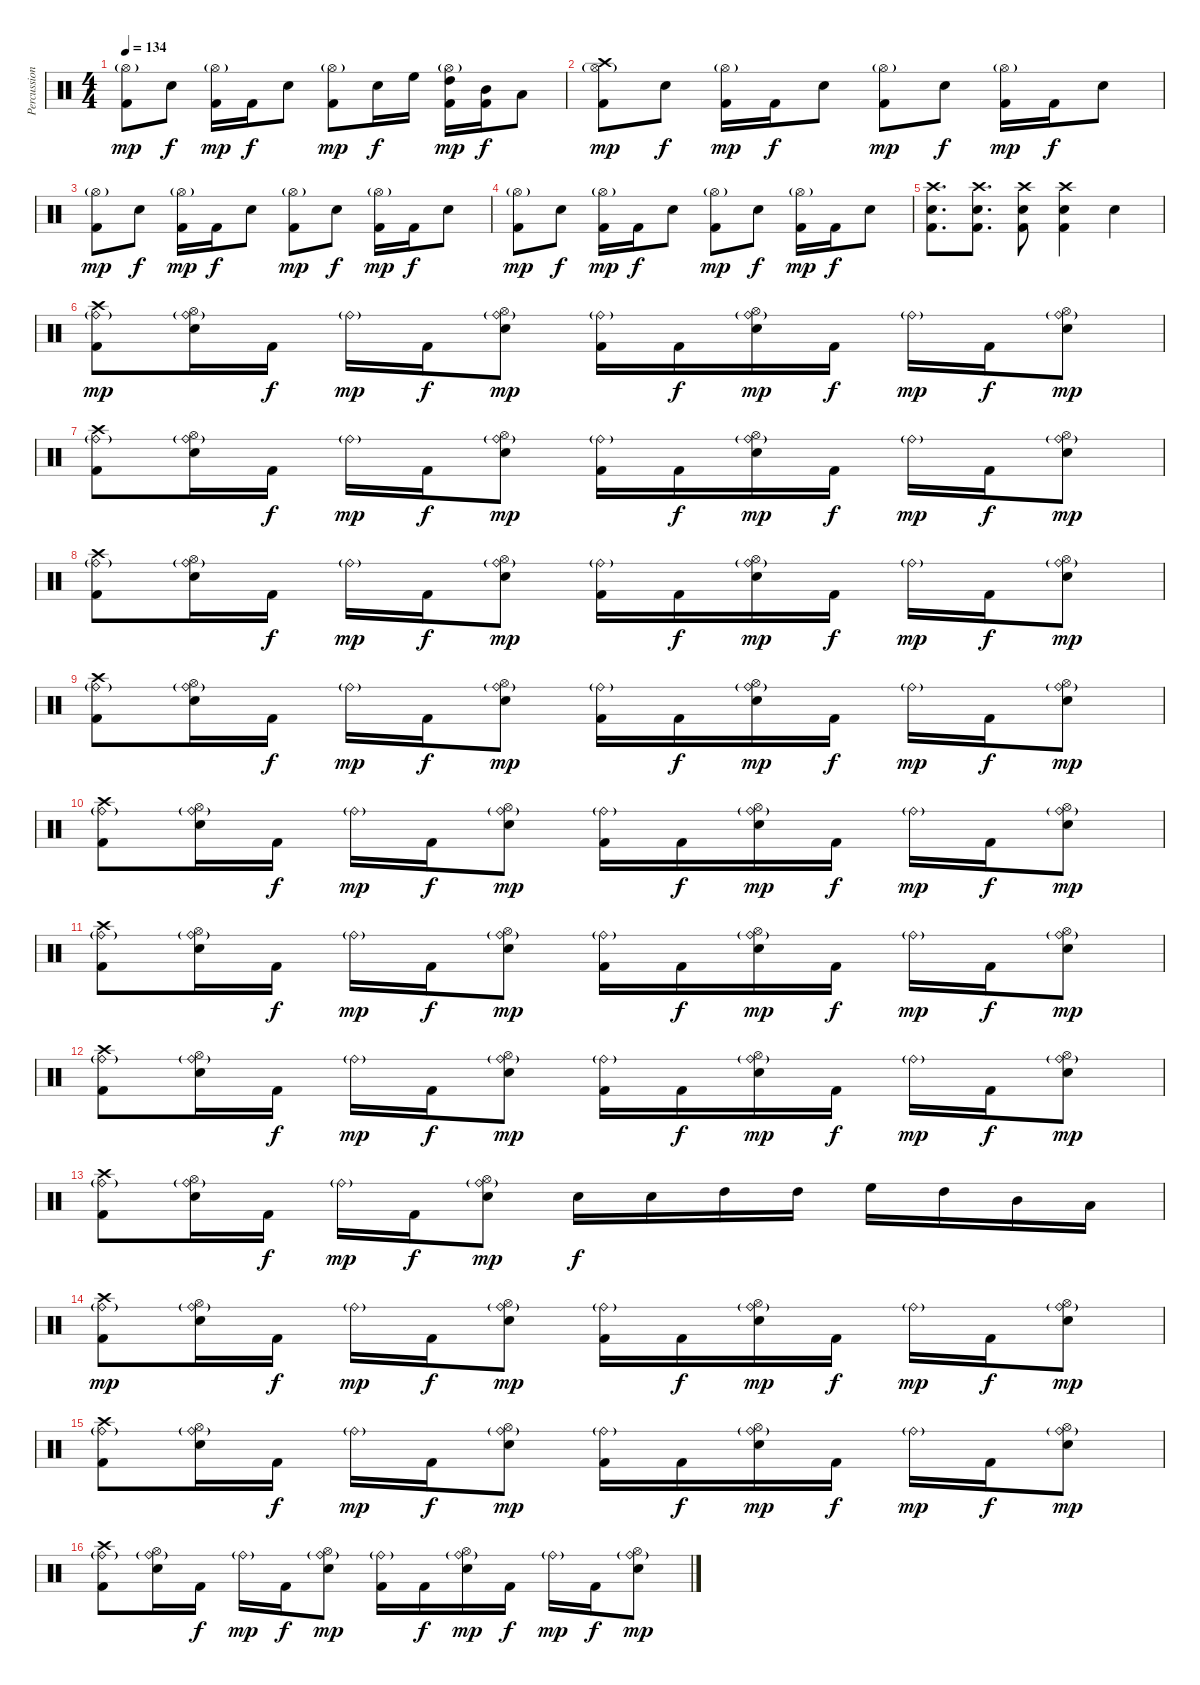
\track ("Percussion" "Percussion") {instrument percussion}
\staff {score}
\articulation defaults
\ts (4 4)
\tempo 134
\clef neutral
\ks aminor
("Hi-Hat (open)"{g} "Kick (hit) 2").8{dy mp} "Electric Snare (hit)".8{dy f} ("Hi-Hat (open)"{g} "Kick (hit) 2").16{dy mp} "Kick (hit) 2".16{dy f} "Electric Snare (hit)".8 ("Hi-Hat (open)"{g} "Kick (hit) 2").8{dy mp} "Electric Snare (hit)".16{dy f} "High Floor Tom (hit)".16 ("Hi-Hat (open)"{g} "High Tom (hit)" "Kick (hit) 2").16{dy mp} ("Mid Tom (hit)" "Kick (hit) 2").16{dy f} "Low Tom (hit)".8 |
("Crash high (hit)" "Hi-Hat (open)"{g} "Kick (hit) 2").8{dy mp} "Electric Snare (hit)".8{dy f} ("Hi-Hat (open)"{g} "Kick (hit) 2").16{dy mp} "Kick (hit) 2".16{dy f} "Electric Snare (hit)".8 ("Hi-Hat (open)"{g} "Kick (hit) 2").8{dy mp} "Electric Snare (hit)".8{dy f} ("Hi-Hat (open)"{g} "Kick (hit) 2").16{dy mp} "Kick (hit) 2".16{dy f} "Electric Snare (hit)".8 |
("Hi-Hat (open)"{g} "Kick (hit) 2").8{dy mp} "Electric Snare (hit)".8{dy f} ("Hi-Hat (open)"{g} "Kick (hit) 2").16{dy mp} "Kick (hit) 2".16{dy f} "Electric Snare (hit)".8 ("Hi-Hat (open)"{g} "Kick (hit) 2").8{dy mp} "Electric Snare (hit)".8{dy f} ("Hi-Hat (open)"{g} "Kick (hit) 2").16{dy mp} "Kick (hit) 2".16{dy f} "Electric Snare (hit)".8 |
("Hi-Hat (open)"{g} "Kick (hit) 2").8{dy mp} "Electric Snare (hit)".8{dy f} ("Hi-Hat (open)"{g} "Kick (hit) 2").16{dy mp} "Kick (hit) 2".16{dy f} "Electric Snare (hit)".8 ("Hi-Hat (open)"{g} "Kick (hit) 2").8{dy mp} "Electric Snare (hit)".8{dy f} ("Hi-Hat (open)"{g} "Kick (hit) 2").16{dy mp} "Kick (hit) 2".16{dy f} "Electric Snare (hit)".8 |
("Crash high (hit)" "Electric Snare (hit)" "Kick (hit) 2").8{d} ("Crash high (hit)" "Electric Snare (hit)" "Kick (hit) 2").8{d} ("Crash high (hit)" "Electric Snare (hit)" "Kick (hit) 2").8 ("Crash high (hit)" "Electric Snare (hit)" "Kick (hit) 2").4 "Electric Snare (hit)".4 |
("Crash high (hit)" "Ride (bell)"{g} "Kick (hit) 2").8{dy mp} ("Hi-Hat (open)" "Ride (bell)"{g} "Electric Snare (hit)").16 "Kick (hit) 2".16{dy f} "Ride (bell)"{g}.16{dy mp} "Kick (hit) 2".16{dy f} ("Hi-Hat (open)" "Ride (bell)"{g} "Electric Snare (hit)").8{dy mp} ("Ride (bell)"{g} "Kick (hit) 2").16 "Kick (hit) 2".16{dy f} ("Hi-Hat (open)" "Ride (bell)"{g} "Electric Snare (hit)").16{dy mp} "Kick (hit) 2".16{dy f} "Ride (bell)"{g}.16{dy mp} "Kick (hit) 2".16{dy f} ("Hi-Hat (open)" "Ride (bell)"{g} "Electric Snare (hit)").8{dy mp} |
("Crash high (hit)" "Ride (bell)"{g} "Kick (hit) 2").8 ("Hi-Hat (open)" "Ride (bell)"{g} "Electric Snare (hit)").16 "Kick (hit) 2".16{dy f} "Ride (bell)"{g}.16{dy mp} "Kick (hit) 2".16{dy f} ("Hi-Hat (open)" "Ride (bell)"{g} "Electric Snare (hit)").8{dy mp} ("Ride (bell)"{g} "Kick (hit) 2").16 "Kick (hit) 2".16{dy f} ("Hi-Hat (open)" "Ride (bell)"{g} "Electric Snare (hit)").16{dy mp} "Kick (hit) 2".16{dy f} "Ride (bell)"{g}.16{dy mp} "Kick (hit) 2".16{dy f} ("Hi-Hat (open)" "Ride (bell)"{g} "Electric Snare (hit)").8{dy mp} |
("Crash high (hit)" "Ride (bell)"{g} "Kick (hit) 2").8 ("Hi-Hat (open)" "Ride (bell)"{g} "Electric Snare (hit)").16 "Kick (hit) 2".16{dy f} "Ride (bell)"{g}.16{dy mp} "Kick (hit) 2".16{dy f} ("Hi-Hat (open)" "Ride (bell)"{g} "Electric Snare (hit)").8{dy mp} ("Ride (bell)"{g} "Kick (hit) 2").16 "Kick (hit) 2".16{dy f} ("Hi-Hat (open)" "Ride (bell)"{g} "Electric Snare (hit)").16{dy mp} "Kick (hit) 2".16{dy f} "Ride (bell)"{g}.16{dy mp} "Kick (hit) 2".16{dy f} ("Hi-Hat (open)" "Ride (bell)"{g} "Electric Snare (hit)").8{dy mp} |
("Crash high (hit)" "Ride (bell)"{g} "Kick (hit) 2").8 ("Hi-Hat (open)" "Ride (bell)"{g} "Electric Snare (hit)").16 "Kick (hit) 2".16{dy f} "Ride (bell)"{g}.16{dy mp} "Kick (hit) 2".16{dy f} ("Hi-Hat (open)" "Ride (bell)"{g} "Electric Snare (hit)").8{dy mp} ("Ride (bell)"{g} "Kick (hit) 2").16 "Kick (hit) 2".16{dy f} ("Hi-Hat (open)" "Ride (bell)"{g} "Electric Snare (hit)").16{dy mp} "Kick (hit) 2".16{dy f} "Ride (bell)"{g}.16{dy mp} "Kick (hit) 2".16{dy f} ("Hi-Hat (open)" "Ride (bell)"{g} "Electric Snare (hit)").8{dy mp} |
("Crash high (hit)" "Ride (bell)"{g} "Kick (hit) 2").8 ("Hi-Hat (open)" "Ride (bell)"{g} "Electric Snare (hit)").16 "Kick (hit) 2".16{dy f} "Ride (bell)"{g}.16{dy mp} "Kick (hit) 2".16{dy f} ("Hi-Hat (open)" "Ride (bell)"{g} "Electric Snare (hit)").8{dy mp} ("Ride (bell)"{g} "Kick (hit) 2").16 "Kick (hit) 2".16{dy f} ("Hi-Hat (open)" "Ride (bell)"{g} "Electric Snare (hit)").16{dy mp} "Kick (hit) 2".16{dy f} "Ride (bell)"{g}.16{dy mp} "Kick (hit) 2".16{dy f} ("Hi-Hat (open)" "Ride (bell)"{g} "Electric Snare (hit)").8{dy mp} |
("Crash high (hit)" "Ride (bell)"{g} "Kick (hit) 2").8 ("Hi-Hat (open)" "Ride (bell)"{g} "Electric Snare (hit)").16 "Kick (hit) 2".16{dy f} "Ride (bell)"{g}.16{dy mp} "Kick (hit) 2".16{dy f} ("Hi-Hat (open)" "Ride (bell)"{g} "Electric Snare (hit)").8{dy mp} ("Ride (bell)"{g} "Kick (hit) 2").16 "Kick (hit) 2".16{dy f} ("Hi-Hat (open)" "Ride (bell)"{g} "Electric Snare (hit)").16{dy mp} "Kick (hit) 2".16{dy f} "Ride (bell)"{g}.16{dy mp} "Kick (hit) 2".16{dy f} ("Hi-Hat (open)" "Ride (bell)"{g} "Electric Snare (hit)").8{dy mp} |
("Crash high (hit)" "Ride (bell)"{g} "Kick (hit) 2").8 ("Hi-Hat (open)" "Ride (bell)"{g} "Electric Snare (hit)").16 "Kick (hit) 2".16{dy f} "Ride (bell)"{g}.16{dy mp} "Kick (hit) 2".16{dy f} ("Hi-Hat (open)" "Ride (bell)"{g} "Electric Snare (hit)").8{dy mp} ("Ride (bell)"{g} "Kick (hit) 2").16 "Kick (hit) 2".16{dy f} ("Hi-Hat (open)" "Ride (bell)"{g} "Electric Snare (hit)").16{dy mp} "Kick (hit) 2".16{dy f} "Ride (bell)"{g}.16{dy mp} "Kick (hit) 2".16{dy f} ("Hi-Hat (open)" "Ride (bell)"{g} "Electric Snare (hit)").8{dy mp} |
("Crash high (hit)" "Ride (bell)"{g} "Kick (hit) 2").8 ("Hi-Hat (open)" "Ride (bell)"{g} "Electric Snare (hit)").16 "Kick (hit) 2".16{dy f} "Ride (bell)"{g}.16{dy mp} "Kick (hit) 2".16{dy f} ("Hi-Hat (open)" "Ride (bell)"{g} "Electric Snare (hit)").8{dy mp} "Electric Snare (hit)".16{dy f} "Electric Snare (hit)".16 "High Tom (hit)".16 "High Tom (hit)".16 "High Floor Tom (hit)".16 "High Tom (hit)".16 "Mid Tom (hit)".16 "Low Tom (hit)".16 |
("Crash high (hit)" "Ride (bell)"{g} "Kick (hit) 2").8{dy mp} ("Hi-Hat (open)" "Ride (bell)"{g} "Electric Snare (hit)").16 "Kick (hit) 2".16{dy f} "Ride (bell)"{g}.16{dy mp} "Kick (hit) 2".16{dy f} ("Hi-Hat (open)" "Ride (bell)"{g} "Electric Snare (hit)").8{dy mp} ("Ride (bell)"{g} "Kick (hit) 2").16 "Kick (hit) 2".16{dy f} ("Hi-Hat (open)" "Ride (bell)"{g} "Electric Snare (hit)").16{dy mp} "Kick (hit) 2".16{dy f} "Ride (bell)"{g}.16{dy mp} "Kick (hit) 2".16{dy f} ("Hi-Hat (open)" "Ride (bell)"{g} "Electric Snare (hit)").8{dy mp} |
("Crash high (hit)" "Ride (bell)"{g} "Kick (hit) 2").8 ("Hi-Hat (open)" "Ride (bell)"{g} "Electric Snare (hit)").16 "Kick (hit) 2".16{dy f} "Ride (bell)"{g}.16{dy mp} "Kick (hit) 2".16{dy f} ("Hi-Hat (open)" "Ride (bell)"{g} "Electric Snare (hit)").8{dy mp} ("Ride (bell)"{g} "Kick (hit) 2").16 "Kick (hit) 2".16{dy f} ("Hi-Hat (open)" "Ride (bell)"{g} "Electric Snare (hit)").16{dy mp} "Kick (hit) 2".16{dy f} "Ride (bell)"{g}.16{dy mp} "Kick (hit) 2".16{dy f} ("Hi-Hat (open)" "Ride (bell)"{g} "Electric Snare (hit)").8{dy mp} |
("Crash high (hit)" "Ride (bell)"{g} "Kick (hit) 2").8 ("Hi-Hat (open)" "Ride (bell)"{g} "Electric Snare (hit)").16 "Kick (hit) 2".16{dy f} "Ride (bell)"{g}.16{dy mp} "Kick (hit) 2".16{dy f} ("Hi-Hat (open)" "Ride (bell)"{g} "Electric Snare (hit)").8{dy mp} ("Ride (bell)"{g} "Kick (hit) 2").16 "Kick (hit) 2".16{dy f} ("Hi-Hat (open)" "Ride (bell)"{g} "Electric Snare (hit)").16{dy mp} "Kick (hit) 2".16{dy f} "Ride (bell)"{g}.16{dy mp} "Kick (hit) 2".16{dy f} ("Hi-Hat (open)" "Ride (bell)"{g} "Electric Snare (hit)").8{dy mp}
